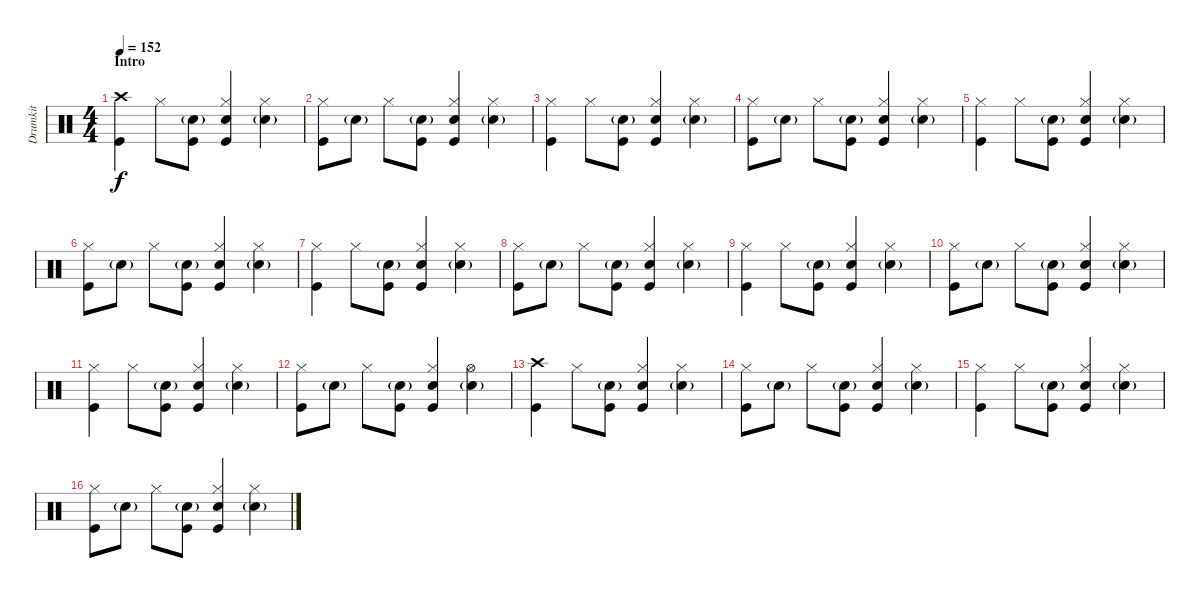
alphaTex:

\track ("Drumkit" "Drumkit") {instrument percussion}
\staff {score}
\articulation defaults
\ts (4 4)
\section ("" "Intro")
\tempo 152
\clef neutral
\ks c
("Kick (hit)" "Crash high (hit)").4{dy f} "Hi-Hat (closed)".8 ("Kick (hit)" "Snare (hit) 2"{g}).8 ("Kick (hit)" "Hi-Hat (closed)" "Snare (hit) 2").4 ("Hi-Hat (closed)" "Snare (hit) 2"{g}).4 |
("Kick (hit)" "Hi-Hat (closed)").8 "Snare (hit) 2"{g}.8 "Hi-Hat (closed)".8 ("Kick (hit)" "Snare (hit) 2"{g}).8 ("Kick (hit)" "Hi-Hat (closed)" "Snare (hit) 2").4 ("Hi-Hat (closed)" "Snare (hit) 2"{g}).4 |
("Kick (hit)" "Hi-Hat (closed)").4 "Hi-Hat (closed)".8 ("Kick (hit)" "Snare (hit) 2"{g}).8 ("Kick (hit)" "Hi-Hat (closed)" "Snare (hit) 2").4 ("Hi-Hat (closed)" "Snare (hit) 2"{g}).4 |
("Kick (hit)" "Hi-Hat (closed)").8 "Snare (hit) 2"{g}.8 "Hi-Hat (closed)".8 ("Kick (hit)" "Snare (hit) 2"{g}).8 ("Kick (hit)" "Hi-Hat (closed)" "Snare (hit) 2").4 ("Hi-Hat (closed)" "Snare (hit) 2"{g}).4 |
("Kick (hit)" "Hi-Hat (closed)").4 "Hi-Hat (closed)".8 ("Kick (hit)" "Snare (hit) 2"{g}).8 ("Kick (hit)" "Hi-Hat (closed)" "Snare (hit) 2").4 ("Hi-Hat (closed)" "Snare (hit) 2"{g}).4 |
("Kick (hit)" "Hi-Hat (closed)").8 "Snare (hit) 2"{g}.8 "Hi-Hat (closed)".8 ("Kick (hit)" "Snare (hit) 2"{g}).8 ("Kick (hit)" "Hi-Hat (closed)" "Snare (hit) 2").4 ("Hi-Hat (closed)" "Snare (hit) 2"{g}).4 |
("Kick (hit)" "Hi-Hat (closed)").4 "Hi-Hat (closed)".8 ("Kick (hit)" "Snare (hit) 2"{g}).8 ("Kick (hit)" "Hi-Hat (closed)" "Snare (hit) 2").4 ("Hi-Hat (closed)" "Snare (hit) 2"{g}).4 |
("Kick (hit)" "Hi-Hat (closed)").8 "Snare (hit) 2"{g}.8 "Hi-Hat (closed)".8 ("Kick (hit)" "Snare (hit) 2"{g}).8 ("Kick (hit)" "Hi-Hat (closed)" "Snare (hit) 2").4 ("Hi-Hat (closed)" "Snare (hit) 2"{g}).4 |
("Kick (hit)" "Hi-Hat (closed)").4 "Hi-Hat (closed)".8 ("Kick (hit)" "Snare (hit) 2"{g}).8 ("Kick (hit)" "Hi-Hat (closed)" "Snare (hit) 2").4 ("Hi-Hat (closed)" "Snare (hit) 2"{g}).4 |
("Kick (hit)" "Hi-Hat (closed)").8 "Snare (hit) 2"{g}.8 "Hi-Hat (closed)".8 ("Kick (hit)" "Snare (hit) 2"{g}).8 ("Kick (hit)" "Hi-Hat (closed)" "Snare (hit) 2").4 ("Hi-Hat (closed)" "Snare (hit) 2"{g}).4 |
("Kick (hit)" "Hi-Hat (closed)").4 "Hi-Hat (closed)".8 ("Kick (hit)" "Snare (hit) 2"{g}).8 ("Kick (hit)" "Hi-Hat (closed)" "Snare (hit) 2").4 ("Hi-Hat (closed)" "Snare (hit) 2"{g}).4 |
("Kick (hit)" "Hi-Hat (closed)").8 "Snare (hit) 2"{g}.8 "Hi-Hat (closed)".8 ("Kick (hit)" "Snare (hit) 2"{g}).8 ("Kick (hit)" "Hi-Hat (closed)" "Snare (hit) 2").4 ("Hi-Hat (open)" "Snare (hit) 2"{g}).4 |
("Kick (hit)" "Crash high (hit)").4 "Hi-Hat (closed)".8 ("Kick (hit)" "Snare (hit) 2"{g}).8 ("Kick (hit)" "Hi-Hat (closed)" "Snare (hit) 2").4 ("Hi-Hat (closed)" "Snare (hit) 2"{g}).4 |
("Kick (hit)" "Hi-Hat (closed)").8 "Snare (hit) 2"{g}.8 "Hi-Hat (closed)".8 ("Kick (hit)" "Snare (hit) 2"{g}).8 ("Kick (hit)" "Hi-Hat (closed)" "Snare (hit) 2").4 ("Hi-Hat (closed)" "Snare (hit) 2"{g}).4 |
("Kick (hit)" "Hi-Hat (closed)").4 "Hi-Hat (closed)".8 ("Kick (hit)" "Snare (hit) 2"{g}).8 ("Kick (hit)" "Hi-Hat (closed)" "Snare (hit) 2").4 ("Hi-Hat (closed)" "Snare (hit) 2"{g}).4 |
("Kick (hit)" "Hi-Hat (closed)").8 "Snare (hit) 2"{g}.8 "Hi-Hat (closed)".8 ("Kick (hit)" "Snare (hit) 2"{g}).8 ("Kick (hit)" "Hi-Hat (closed)" "Snare (hit) 2").4 ("Hi-Hat (closed)" "Snare (hit) 2"{g}).4
